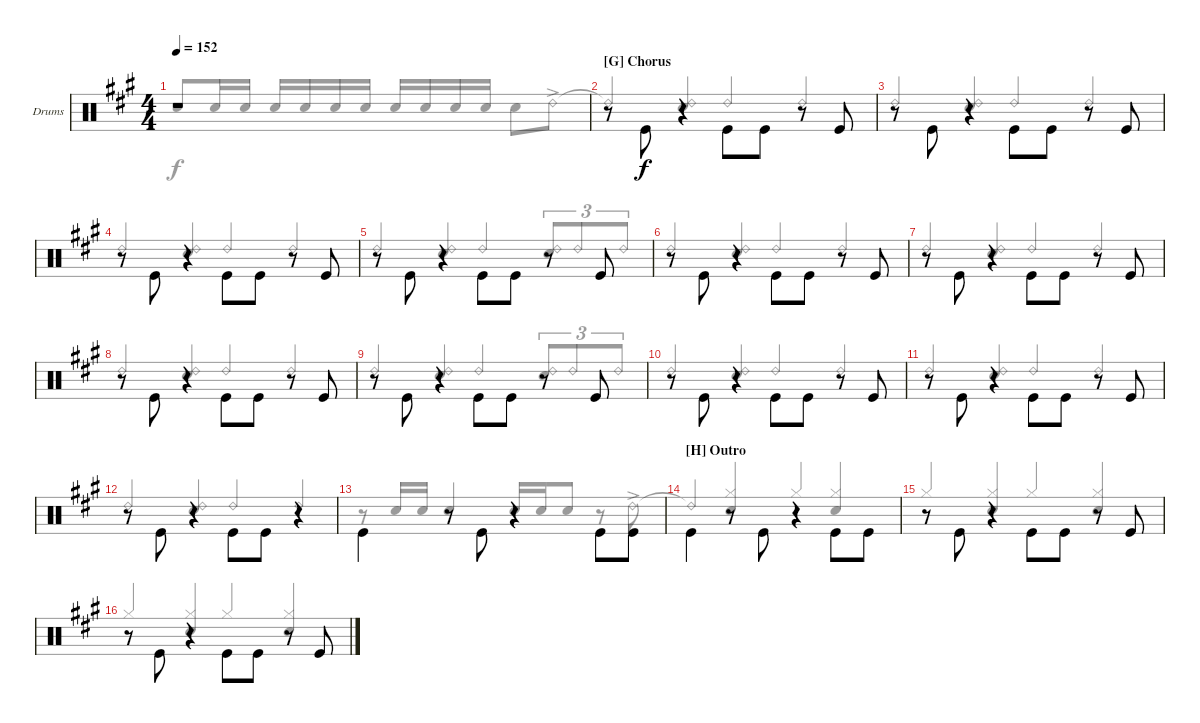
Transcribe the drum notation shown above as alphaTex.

\defaultSystemsLayout 4
\bracketExtendMode groupsimilarinstruments
\firstSystemTrackNameOrientation horizontal
\otherSystemsTrackNameOrientation horizontal
\track ("Drumkit" "Drums") {instrument percussion}
\staff {score}
\articulation defaults
\voice
\ts (4 4)
\tempo 152
\clef neutral
\scale
1.05801
\ks a
r.1{dy f} |
\section ("G" "Chorus")
\scale
0.941992 r.8{beam invert} "Kick (hit)".8{beam invert} r.4{beam invert} "Kick (hit)".8{beam invert} "Kick (hit)".8 r.8 "Kick (hit)".8 |
\scale
1.05801 r.8{beam invert} "Kick (hit)".8{beam invert} r.4{beam invert} "Kick (hit)".8{beam invert} "Kick (hit)".8 r.8 "Kick (hit)".8 |
\scale
0.941992 r.8{beam invert} "Kick (hit)".8{beam invert} r.4{beam invert} "Kick (hit)".8{beam invert} "Kick (hit)".8 r.8 "Kick (hit)".8 |
\scale
1.05801 r.8{beam invert} "Kick (hit)".8{beam invert} r.4{beam invert} "Kick (hit)".8{beam invert} "Kick (hit)".8 r.8 "Kick (hit)".8 |
\scale
0.941992 r.8{beam invert} "Kick (hit)".8{beam invert} r.4{beam invert} "Kick (hit)".8{beam invert} "Kick (hit)".8 r.8 "Kick (hit)".8 |
\scale
1.05801 r.8{beam invert} "Kick (hit)".8{beam invert} r.4{beam invert} "Kick (hit)".8{beam invert} "Kick (hit)".8 r.8 "Kick (hit)".8 |
\scale
0.941992 r.8{beam invert} "Kick (hit)".8{beam invert} r.4{beam invert} "Kick (hit)".8{beam invert} "Kick (hit)".8 r.8 "Kick (hit)".8 |
\scale
1.05801 r.8{beam invert} "Kick (hit)".8{beam invert} r.4{beam invert} "Kick (hit)".8{beam invert} "Kick (hit)".8 r.8 "Kick (hit)".8 |
\scale
0.941992 r.8{beam invert} "Kick (hit)".8{beam invert} r.4{beam invert} "Kick (hit)".8{beam invert} "Kick (hit)".8 r.8 "Kick (hit)".8 |
\scale
1.05801 r.8{beam invert} "Kick (hit)".8{beam invert} r.4{beam invert} "Kick (hit)".8{beam invert} "Kick (hit)".8 r.8 "Kick (hit)".8 |
\scale
0.941992 r.8{beam invert} "Kick (hit)".8{beam invert} r.4{beam invert} "Kick (hit)".8{beam invert} "Kick (hit)".8 r.4 |
\scale
1.05801 "Kick (hit)".4{beam invert} r.8{beam invert} "Kick (hit)".8{beam invert} r.4{beam invert} "Kick (hit)".8{beam invert} "Kick (hit)".8 |
\section ("H" "Outro")
\scale
0.941992 "Kick (hit)".4{beam invert} r.8 "Kick (hit)".8{beam invert} r.4 "Kick (hit)".8{beam invert} "Kick (hit)".8 |
\scale
1.05801 r.8 "Kick (hit)".8{beam invert} r.4 "Kick (hit)".8{beam invert} "Kick (hit)".8 r.8 "Kick (hit)".8 |
\scale
0.941992 r.8 "Kick (hit)".8{beam invert} r.4 "Kick (hit)".8{beam invert} "Kick (hit)".8 r.8 "Kick (hit)".8
\voice
\clef neutral
\ottava regular
\simile none
\scale
1.05801
\ks a "Snare (hit) 2".8{dy f beam invert} "Snare (hit) 2".16 "Snare (hit) 2".16 "Snare (hit) 2".16 "Snare (hit) 2".16 "Snare (hit) 2".16 "Snare (hit) 2".16 "Snare (hit) 2".16{beam invert} "Snare (hit) 2".16 "Snare (hit) 2".16 "Snare (hit) 2".16 "Snare (hit) 2".8 "Ride (bell) 2"{ac}.8
|
\scale
0.941992 "Ride (bell) 2"{t}.4{beam invert} ("Snare (hit) 2" "Ride (bell) 2").4{beam invert} "Ride (bell) 2".4{beam invert} "Ride (bell) 2".4{beam invert} |
\scale
1.05801 "Ride (bell) 2".4{beam invert} ("Snare (hit) 2" "Ride (bell) 2").4{beam invert} "Ride (bell) 2".4{beam invert} "Ride (bell) 2".4{beam invert} |
\scale
0.941992 "Ride (bell) 2".4{beam invert} ("Snare (hit) 2" "Ride (bell) 2").4{beam invert} "Ride (bell) 2".4{beam invert} "Ride (bell) 2".4{beam invert} |
\scale
1.05801 "Ride (bell) 2".4{beam invert} ("Snare (hit) 2" "Ride (bell) 2").4{beam invert} "Ride (bell) 2".4{beam invert} ("Snare (hit) 2" "Ride (bell) 2").8{tu (3 2) beam invert} "Ride (bell) 2".8{tu (3 2) beam invert} "Ride (bell) 2".8{tu (3 2) beam invert} |
\scale
0.941992 "Ride (bell) 2".4{beam invert} ("Snare (hit) 2" "Ride (bell) 2").4{beam invert} "Ride (bell) 2".4{beam invert} "Ride (bell) 2".4{beam invert} |
\scale
1.05801 "Ride (bell) 2".4{beam invert} ("Snare (hit) 2" "Ride (bell) 2").4{beam invert} "Ride (bell) 2".4{beam invert} "Ride (bell) 2".4{beam invert} |
\scale
0.941992 "Ride (bell) 2".4{beam invert} ("Snare (hit) 2" "Ride (bell) 2").4{beam invert} "Ride (bell) 2".4{beam invert} "Ride (bell) 2".4{beam invert} |
\scale
1.05801 "Ride (bell) 2".4{beam invert} ("Snare (hit) 2" "Ride (bell) 2").4{beam invert} "Ride (bell) 2".4{beam invert} ("Snare (hit) 2" "Ride (bell) 2").8{tu (3 2) beam invert} "Ride (bell) 2".8{tu (3 2) beam invert} "Ride (bell) 2".8{tu (3 2) beam invert} |
\scale
0.941992 "Ride (bell) 2".4{beam invert} ("Snare (hit) 2" "Ride (bell) 2").4{beam invert} "Ride (bell) 2".4{beam invert} "Ride (bell) 2".4{beam invert} |
\scale
1.05801 "Ride (bell) 2".4{beam invert} ("Snare (hit) 2" "Ride (bell) 2").4{beam invert} "Ride (bell) 2".4{beam invert} "Ride (bell) 2".4{beam invert} |
\scale
0.941992 "Ride (bell) 2".4{beam invert} ("Snare (hit) 2" "Ride (bell) 2").4{beam invert} "Ride (bell) 2".4{beam invert} "Ride (bell) 2".4{beam invert} |
\scale
1.05801 r.8{beam invert} "Snare (hit) 2".16{beam invert} "Snare (hit) 2".16 "Snare (hit) 2".4{beam invert} "Snare (hit) 2".16{beam invert} "Snare (hit) 2".16 "Snare (hit) 2".8 r.8 "Ride (bell) 2"{ac}.8 |
\scale
0.941992 "Ride (bell) 2"{t}.4{beam invert} ("Hi-Hat (closed)" "Snare (hit) 2").4{beam invert} "Hi-Hat (closed)".4{beam invert} ("Hi-Hat (closed)" "Snare (hit) 2").4{beam invert} |
\scale
1.05801 "Hi-Hat (closed)".4{beam invert} ("Hi-Hat (closed)" "Snare (hit) 2").4{beam invert} "Hi-Hat (closed)".4{beam invert} ("Hi-Hat (closed)" "Snare (hit) 2").4{beam invert} |
\scale
0.941992 "Hi-Hat (closed)".4{beam invert} ("Hi-Hat (closed)" "Snare (hit) 2").4{beam invert} "Hi-Hat (closed)".4{beam invert} ("Hi-Hat (closed)" "Snare (hit) 2").4{beam invert}
